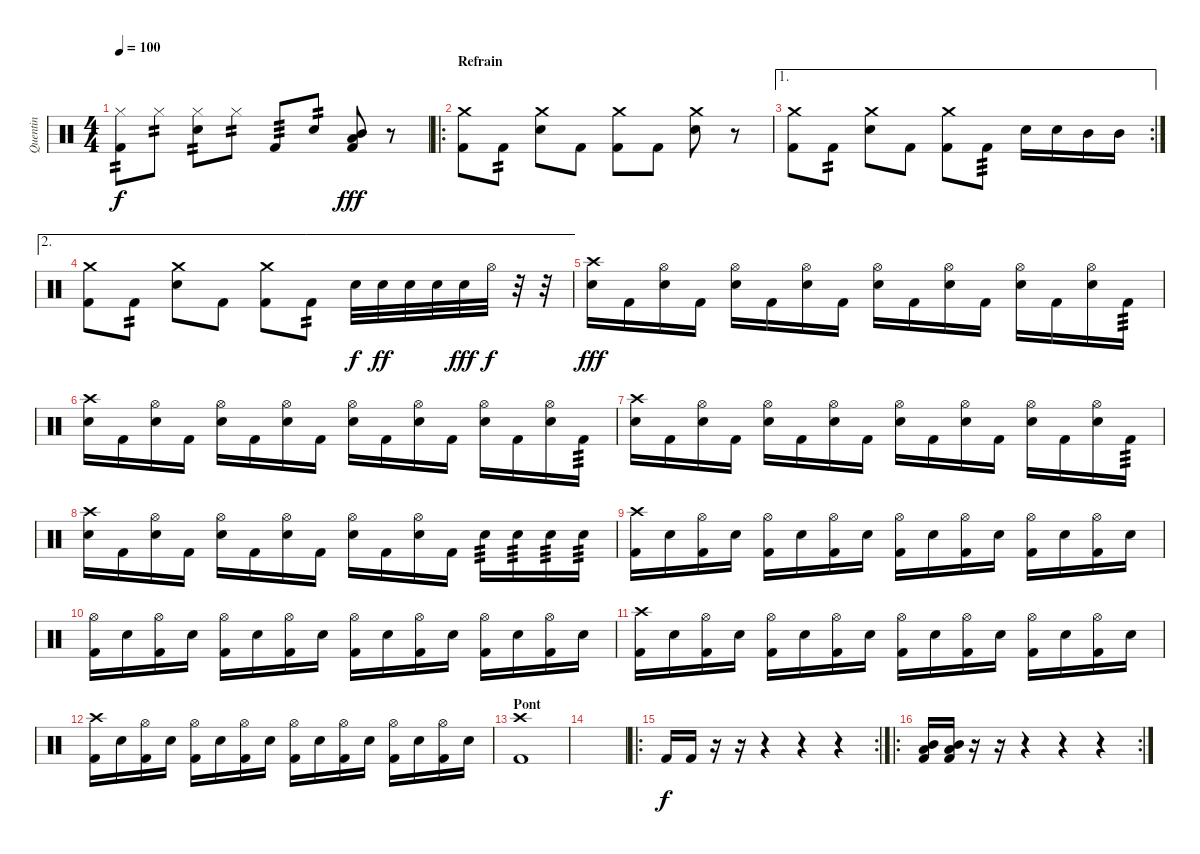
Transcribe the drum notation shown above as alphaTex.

\track ("Quentin" "Quentin") {instrument percussion}
\staff {score}
\articulation defaults
\ts (4 4)
\tempo 100
\clef neutral
\ks c
("Hi-Hat (closed)" "Kick (hit) 2").8{tp 2 dy f} "Hi-Hat (closed)".8{tp 2} ("Hi-Hat (closed)" "Snare (hit) 2").8{tp 2} "Hi-Hat (closed)".8{tp 2} "Kick (hit) 2".8{tp 3} "Snare (hit) 2".8{tp 2} ("Mid Tom (hit)" "Low Tom (hit)" "Kick (hit) 2").8{dy fff} r.8 |
\ro
\section ("" "Refrain")
("Crash medium (hit)" "Kick (hit) 2").8 "Kick (hit) 2".8{tp 2} ("Crash medium (hit)" "Electric Snare (hit)").8 "Kick (hit) 2".8 ("Crash medium (hit)" "Kick (hit) 2").8 "Kick (hit) 2".8 ("Crash medium (hit)" "Electric Snare (hit)").8 r.8 |
\ae 1
\rc 2
("Crash medium (hit)" "Kick (hit) 2").8 "Kick (hit) 2".8{tp 2} ("Crash medium (hit)" "Electric Snare (hit)").8 "Kick (hit) 2".8 ("Crash medium (hit)" "Kick (hit) 2").8 "Kick (hit) 2".8{tp 3} "Electric Snare (hit)".16 "Electric Snare (hit)".16 "Mid Tom (hit)".16 "Mid Tom (hit)".16 |
\ae 2
("Crash medium (hit)" "Kick (hit) 2").8 "Kick (hit) 2".8{tp 2} ("Crash medium (hit)" "Electric Snare (hit)").8 "Kick (hit) 2".8 ("Crash medium (hit)" "Kick (hit) 2").8 "Kick (hit) 2".8{tp 2} "Electric Snare (hit)".32{dy f} "Electric Snare (hit)".32{dy ff} "Electric Snare (hit)".32 "Electric Snare (hit)".32 "Electric Snare (hit)".32{dy fff} "Hi-Hat (open)".32{dy f} r.32 r.32 |
("Crash high (hit)" "Electric Snare (hit)").16{dy fff} "Kick (hit) 2".16 ("Hi-Hat (open)" "Electric Snare (hit)").16 "Kick (hit) 2".16 ("Hi-Hat (open)" "Electric Snare (hit)").16 "Kick (hit) 2".16 ("Hi-Hat (open)" "Electric Snare (hit)").16 "Kick (hit) 2".16 ("Hi-Hat (open)" "Electric Snare (hit)").16 "Kick (hit) 2".16 ("Hi-Hat (open)" "Electric Snare (hit)").16 "Kick (hit) 2".16 ("Hi-Hat (open)" "Electric Snare (hit)").16 "Kick (hit) 2".16 ("Hi-Hat (open)" "Electric Snare (hit)").16 "Kick (hit) 2".16{tp 3} |
("Crash high (hit)" "Electric Snare (hit)").16 "Kick (hit) 2".16 ("Hi-Hat (open)" "Electric Snare (hit)").16 "Kick (hit) 2".16 ("Hi-Hat (open)" "Electric Snare (hit)").16 "Kick (hit) 2".16 ("Hi-Hat (open)" "Electric Snare (hit)").16 "Kick (hit) 2".16 ("Hi-Hat (open)" "Electric Snare (hit)").16 "Kick (hit) 2".16 ("Hi-Hat (open)" "Electric Snare (hit)").16 "Kick (hit) 2".16 ("Hi-Hat (open)" "Electric Snare (hit)").16 "Kick (hit) 2".16 ("Hi-Hat (open)" "Electric Snare (hit)").16 "Kick (hit) 2".16{tp 3} |
("Crash high (hit)" "Electric Snare (hit)").16 "Kick (hit) 2".16 ("Hi-Hat (open)" "Electric Snare (hit)").16 "Kick (hit) 2".16 ("Hi-Hat (open)" "Electric Snare (hit)").16 "Kick (hit) 2".16 ("Hi-Hat (open)" "Electric Snare (hit)").16 "Kick (hit) 2".16 ("Hi-Hat (open)" "Electric Snare (hit)").16 "Kick (hit) 2".16 ("Hi-Hat (open)" "Electric Snare (hit)").16 "Kick (hit) 2".16 ("Hi-Hat (open)" "Electric Snare (hit)").16 "Kick (hit) 2".16 ("Hi-Hat (open)" "Electric Snare (hit)").16 "Kick (hit) 2".16{tp 3} |
("Crash high (hit)" "Electric Snare (hit)").16 "Kick (hit) 2".16 ("Hi-Hat (open)" "Electric Snare (hit)").16 "Kick (hit) 2".16 ("Hi-Hat (open)" "Electric Snare (hit)").16 "Kick (hit) 2".16 ("Hi-Hat (open)" "Electric Snare (hit)").16 "Kick (hit) 2".16 ("Hi-Hat (open)" "Electric Snare (hit)").16 "Kick (hit) 2".16 ("Hi-Hat (open)" "Electric Snare (hit)").16 "Kick (hit) 2".16 "Electric Snare (hit)".16{tp 3} "Electric Snare (hit)".16{tp 3} "Electric Snare (hit)".16{tp 3} "Electric Snare (hit)".16{tp 3} |
("Crash high (hit)" "Kick (hit) 2").16 "Electric Snare (hit)".16 ("Hi-Hat (open)" "Kick (hit) 2").16 "Electric Snare (hit)".16 ("Hi-Hat (open)" "Kick (hit) 2").16 "Electric Snare (hit)".16 ("Hi-Hat (open)" "Kick (hit) 2").16 "Electric Snare (hit)".16 ("Hi-Hat (open)" "Kick (hit) 2").16 "Electric Snare (hit)".16 ("Hi-Hat (open)" "Kick (hit) 2").16 "Electric Snare (hit)".16 ("Hi-Hat (open)" "Kick (hit) 2").16 "Electric Snare (hit)".16 ("Hi-Hat (open)" "Kick (hit) 2").16 "Electric Snare (hit)".16 |
("Hi-Hat (open)" "Kick (hit) 2").16 "Electric Snare (hit)".16 ("Hi-Hat (open)" "Kick (hit) 2").16 "Electric Snare (hit)".16 ("Hi-Hat (open)" "Kick (hit) 2").16 "Electric Snare (hit)".16 ("Hi-Hat (open)" "Kick (hit) 2").16 "Electric Snare (hit)".16 ("Hi-Hat (open)" "Kick (hit) 2").16 "Electric Snare (hit)".16 ("Hi-Hat (open)" "Kick (hit) 2").16 "Electric Snare (hit)".16 ("Hi-Hat (open)" "Kick (hit) 2").16 "Electric Snare (hit)".16 ("Hi-Hat (open)" "Kick (hit) 2").16 "Electric Snare (hit)".16 |
("Crash high (hit)" "Kick (hit) 2").16 "Electric Snare (hit)".16 ("Hi-Hat (open)" "Kick (hit) 2").16 "Electric Snare (hit)".16 ("Hi-Hat (open)" "Kick (hit) 2").16 "Electric Snare (hit)".16 ("Hi-Hat (open)" "Kick (hit) 2").16 "Electric Snare (hit)".16 ("Hi-Hat (open)" "Kick (hit) 2").16 "Electric Snare (hit)".16 ("Hi-Hat (open)" "Kick (hit) 2").16 "Electric Snare (hit)".16 ("Hi-Hat (open)" "Kick (hit) 2").16 "Electric Snare (hit)".16 ("Hi-Hat (open)" "Kick (hit) 2").16 "Electric Snare (hit)".16 |
("Crash high (hit)" "Kick (hit) 2").16 "Electric Snare (hit)".16 ("Hi-Hat (open)" "Kick (hit) 2").16 "Electric Snare (hit)".16 ("Hi-Hat (open)" "Kick (hit) 2").16 "Electric Snare (hit)".16 ("Hi-Hat (open)" "Kick (hit) 2").16 "Electric Snare (hit)".16 ("Hi-Hat (open)" "Kick (hit) 2").16 "Electric Snare (hit)".16 ("Hi-Hat (open)" "Kick (hit) 2").16 "Electric Snare (hit)".16 ("Hi-Hat (open)" "Kick (hit) 2").16 "Electric Snare (hit)".16 ("Hi-Hat (open)" "Kick (hit) 2").16 "Electric Snare (hit)".16 |
\section ("" "Pont")
("Crash high (hit)" "Kick (hit) 2").1 |
|
\ro
\rc 2 "Kick (hit) 2".16{dy f} "Kick (hit) 2".16
r.16 r.16 r.4 r.4 r.4 |
\ro
\rc 2
("Mid Tom (hit)" "Low Tom (hit)" "Kick (hit) 2").16 ("Mid Tom (hit)" "Low Tom (hit)" "Kick (hit) 2").16 r.16 r.16 r.4 r.4 r.4
